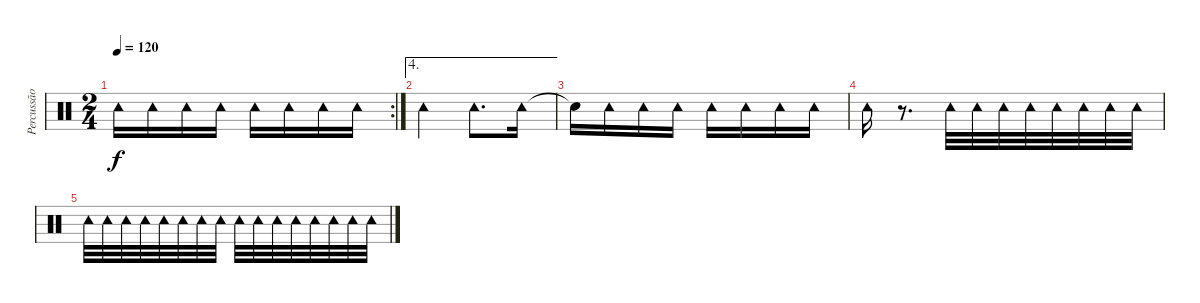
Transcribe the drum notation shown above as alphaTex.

\track ("Percussão" "Percussão") {instrument percussion}
\staff {score}
\articulation defaults
\rc 2
\ts (2 4)
\tempo 120
\clef neutral
\ks c "Tambourine (hit)"{t}.16{dy f} "Tambourine (hit)".16 "Tambourine (hit)".16 "Tambourine (hit)".16 "Tambourine (hit)".16 "Tambourine (hit)".16 "Tambourine (hit)".16 "Tambourine (hit)".16
|
\ae 4 "Tambourine (hit)".4 "Tambourine (hit)".8{d} "Tambourine (hit)".16
|
"Snare (hit)"{t}.16 "Tambourine (hit)".16 "Tambourine (hit)".16 "Tambourine (hit)".16 "Tambourine (hit)".16 "Tambourine (hit)".16 "Tambourine (hit)".16 "Tambourine (hit)".16 |
"Tambourine (hit)".16 r.8{d} "Tambourine (hit)".32{volume 8} "Tambourine (hit)".32 "Tambourine (hit)".32 "Tambourine (hit)".32 "Tambourine (hit)".32 "Tambourine (hit)".32 "Tambourine (hit)".32 "Tambourine (hit)".32 |
"Tambourine (hit)".32 "Tambourine (hit)".32 "Tambourine (hit)".32 "Tambourine (hit)".32 "Tambourine (hit)".32 "Tambourine (hit)".32 "Tambourine (hit)".32 "Tambourine (hit)".32 "Tambourine (hit)".32 "Tambourine (hit)".32 "Tambourine (hit)".32 "Tambourine (hit)".32 "Tambourine (hit)".32 "Tambourine (hit)".32 "Tambourine (hit)".32 "Tambourine (hit)".32
